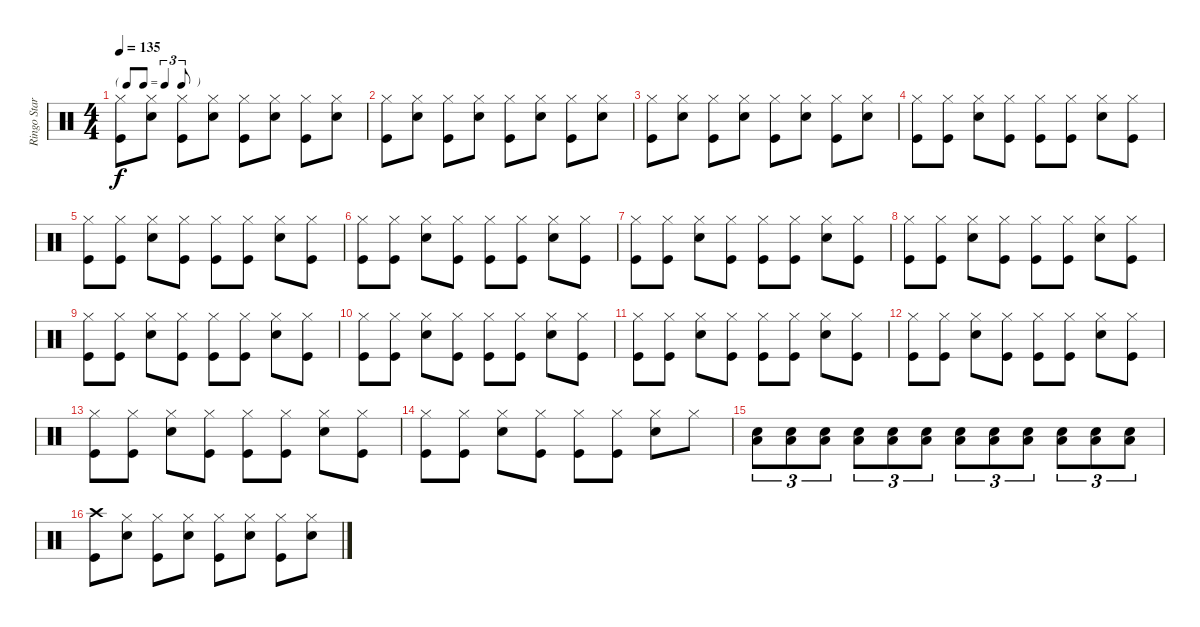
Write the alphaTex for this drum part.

\track ("Ringo Star" "Ringo Star") {instrument percussion}
\staff {score}
\articulation defaults
\ts (4 4)
\tf triplet8th
\tempo 135
\clef neutral
\ks c
("Hi-Hat (closed)" "Kick (hit)").8{dy f} ("Hi-Hat (closed)" "Snare (hit) 2").8 ("Hi-Hat (closed)" "Kick (hit)").8 ("Hi-Hat (closed)" "Snare (hit) 2").8 ("Hi-Hat (closed)" "Kick (hit)").8 ("Hi-Hat (closed)" "Snare (hit) 2").8 ("Hi-Hat (closed)" "Kick (hit)").8 ("Hi-Hat (closed)" "Snare (hit) 2").8 |
("Hi-Hat (closed)" "Kick (hit)").8 ("Hi-Hat (closed)" "Snare (hit) 2").8 ("Hi-Hat (closed)" "Kick (hit)").8 ("Hi-Hat (closed)" "Snare (hit) 2").8 ("Hi-Hat (closed)" "Kick (hit)").8 ("Hi-Hat (closed)" "Snare (hit) 2").8 ("Hi-Hat (closed)" "Kick (hit)").8 ("Hi-Hat (closed)" "Snare (hit) 2").8 |
("Hi-Hat (closed)" "Kick (hit)").8 ("Hi-Hat (closed)" "Snare (hit) 2").8 ("Hi-Hat (closed)" "Kick (hit)").8 ("Hi-Hat (closed)" "Snare (hit) 2").8 ("Hi-Hat (closed)" "Kick (hit)").8 ("Hi-Hat (closed)" "Snare (hit) 2").8 ("Hi-Hat (closed)" "Kick (hit)").8 ("Hi-Hat (closed)" "Snare (hit) 2").8 |
("Hi-Hat (closed)" "Kick (hit)").8 ("Hi-Hat (closed)" "Kick (hit)").8 ("Hi-Hat (closed)" "Snare (hit) 2").8 ("Hi-Hat (closed)" "Kick (hit)").8 ("Hi-Hat (closed)" "Kick (hit)").8 ("Hi-Hat (closed)" "Kick (hit)").8 ("Hi-Hat (closed)" "Snare (hit) 2").8 ("Hi-Hat (closed)" "Kick (hit)").8 |
("Hi-Hat (closed)" "Kick (hit)").8 ("Hi-Hat (closed)" "Kick (hit)").8 ("Hi-Hat (closed)" "Snare (hit) 2").8 ("Hi-Hat (closed)" "Kick (hit)").8 ("Hi-Hat (closed)" "Kick (hit)").8 ("Hi-Hat (closed)" "Kick (hit)").8 ("Hi-Hat (closed)" "Snare (hit) 2").8 ("Hi-Hat (closed)" "Kick (hit)").8 |
("Hi-Hat (closed)" "Kick (hit)").8 ("Hi-Hat (closed)" "Kick (hit)").8 ("Hi-Hat (closed)" "Snare (hit) 2").8 ("Hi-Hat (closed)" "Kick (hit)").8 ("Hi-Hat (closed)" "Kick (hit)").8 ("Hi-Hat (closed)" "Kick (hit)").8 ("Hi-Hat (closed)" "Snare (hit) 2").8 ("Hi-Hat (closed)" "Kick (hit)").8 |
("Hi-Hat (closed)" "Kick (hit)").8 ("Hi-Hat (closed)" "Kick (hit)").8 ("Hi-Hat (closed)" "Snare (hit) 2").8 ("Hi-Hat (closed)" "Kick (hit)").8 ("Hi-Hat (closed)" "Kick (hit)").8 ("Hi-Hat (closed)" "Kick (hit)").8 ("Hi-Hat (closed)" "Snare (hit) 2").8 ("Hi-Hat (closed)" "Kick (hit)").8 |
("Hi-Hat (closed)" "Kick (hit)").8 ("Hi-Hat (closed)" "Kick (hit)").8 ("Hi-Hat (closed)" "Snare (hit) 2").8 ("Hi-Hat (closed)" "Kick (hit)").8 ("Hi-Hat (closed)" "Kick (hit)").8 ("Hi-Hat (closed)" "Kick (hit)").8 ("Hi-Hat (closed)" "Snare (hit) 2").8 ("Hi-Hat (closed)" "Kick (hit)").8 |
("Hi-Hat (closed)" "Kick (hit)").8 ("Hi-Hat (closed)" "Kick (hit)").8 ("Hi-Hat (closed)" "Snare (hit) 2").8 ("Hi-Hat (closed)" "Kick (hit)").8 ("Hi-Hat (closed)" "Kick (hit)").8 ("Hi-Hat (closed)" "Kick (hit)").8 ("Hi-Hat (closed)" "Snare (hit) 2").8 ("Hi-Hat (closed)" "Kick (hit)").8 |
("Hi-Hat (closed)" "Kick (hit)").8 ("Hi-Hat (closed)" "Kick (hit)").8 ("Hi-Hat (closed)" "Snare (hit) 2").8 ("Hi-Hat (closed)" "Kick (hit)").8 ("Hi-Hat (closed)" "Kick (hit)").8 ("Hi-Hat (closed)" "Kick (hit)").8 ("Hi-Hat (closed)" "Snare (hit) 2").8 ("Hi-Hat (closed)" "Kick (hit)").8 |
("Hi-Hat (closed)" "Kick (hit)").8 ("Hi-Hat (closed)" "Kick (hit)").8 ("Hi-Hat (closed)" "Snare (hit) 2").8 ("Hi-Hat (closed)" "Kick (hit)").8 ("Hi-Hat (closed)" "Kick (hit)").8 ("Hi-Hat (closed)" "Kick (hit)").8 ("Hi-Hat (closed)" "Snare (hit) 2").8 ("Hi-Hat (closed)" "Kick (hit)").8 |
("Hi-Hat (closed)" "Kick (hit)").8 ("Hi-Hat (closed)" "Kick (hit)").8 ("Hi-Hat (closed)" "Snare (hit) 2").8 ("Hi-Hat (closed)" "Kick (hit)").8 ("Hi-Hat (closed)" "Kick (hit)").8 ("Hi-Hat (closed)" "Kick (hit)").8 ("Hi-Hat (closed)" "Snare (hit) 2").8 ("Hi-Hat (closed)" "Kick (hit)").8 |
("Hi-Hat (closed)" "Kick (hit)").8 ("Hi-Hat (closed)" "Kick (hit)").8 ("Hi-Hat (closed)" "Snare (hit) 2").8 ("Hi-Hat (closed)" "Kick (hit)").8 ("Hi-Hat (closed)" "Kick (hit)").8 ("Hi-Hat (closed)" "Kick (hit)").8 ("Hi-Hat (closed)" "Snare (hit) 2").8 ("Hi-Hat (closed)" "Kick (hit)").8 |
("Hi-Hat (closed)" "Kick (hit)").8 ("Hi-Hat (closed)" "Kick (hit)").8 ("Hi-Hat (closed)" "Snare (hit) 2").8 ("Hi-Hat (closed)" "Kick (hit)").8 ("Hi-Hat (closed)" "Kick (hit)").8 ("Hi-Hat (closed)" "Kick (hit)").8 ("Hi-Hat (closed)" "Snare (hit) 2").8 "Hi-Hat (closed)".8 |
("Snare (hit) 2" "Low Tom (hit)").8{tu (3 2)} ("Snare (hit) 2" "Low Tom (hit)").8{tu (3 2)} ("Snare (hit) 2" "Low Tom (hit)").8{tu (3 2)} ("Snare (hit) 2" "Low Tom (hit)").8{tu (3 2)} ("Snare (hit) 2" "Low Tom (hit)").8{tu (3 2)} ("Snare (hit) 2" "Low Tom (hit)").8{tu (3 2)} ("Snare (hit) 2" "Low Tom (hit)").8{tu (3 2)} ("Snare (hit) 2" "Low Tom (hit)").8{tu (3 2)} ("Snare (hit) 2" "Low Tom (hit)").8{tu (3 2)} ("Snare (hit) 2" "Low Tom (hit)").8{tu (3 2)} ("Snare (hit) 2" "Low Tom (hit)").8{tu (3 2)} ("Snare (hit) 2" "Low Tom (hit)").8{tu (3 2)} |
("Crash high (hit)" "Kick (hit)").8 ("Hi-Hat (closed)" "Snare (hit) 2").8 ("Hi-Hat (closed)" "Kick (hit)").8 ("Hi-Hat (closed)" "Snare (hit) 2").8 ("Hi-Hat (closed)" "Kick (hit)").8 ("Hi-Hat (closed)" "Snare (hit) 2").8 ("Hi-Hat (closed)" "Kick (hit)").8 ("Hi-Hat (closed)" "Snare (hit) 2").8
